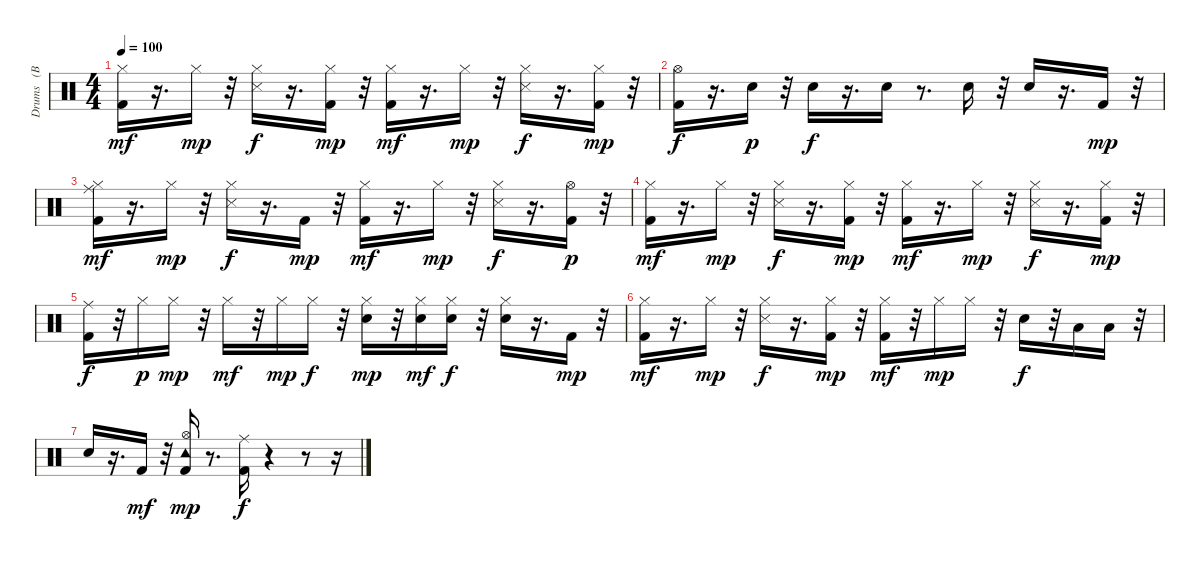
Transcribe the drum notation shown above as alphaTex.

\track ("Drums   (BB)" "Drums   (B") {instrument percussion}
\staff {score}
\articulation defaults
\ts (4 4)
\tempo 100
\clef neutral
\ks c
("Kick (hit) 2" "Hi-Hat (closed)").16{dy mf} r.16{d} "Hi-Hat (closed)".16{dy mp} r.32 ("Hi-Hat (closed)" "Snare (side stick) 3").16{dy f} r.16{d} ("Kick (hit) 2" "Hi-Hat (closed)").16{dy mp} r.32 ("Kick (hit) 2" "Hi-Hat (closed)").16{dy mf} r.16{d} "Hi-Hat (closed)".16{dy mp} r.32 ("Hi-Hat (closed)" "Snare (side stick) 3").16{dy f} r.16{d} ("Kick (hit) 2" "Hi-Hat (closed)").16{dy mp} r.32 |
("Kick (hit) 2" "Hi-Hat (open)").16{dy f} r.16{d} "Snare (hit) 2".16{dy p} r.32 "Snare (hit) 2".16{dy f} r.16{d} "Snare (hit) 2".16 r.8{d} "Snare (hit) 2".16 r.32 "Snare (hit) 2".16 r.16{d} "Kick (hit) 2".16{dy mp} r.32 |
("Kick (hit) 2" "Hi-Hat (closed)" "Ride (middle)").16{dy mf} r.16{d} "Hi-Hat (closed)".16{dy mp} r.32 ("Hi-Hat (closed)" "Snare (side stick) 3").16{dy f} r.16{d} "Kick (hit) 2".16{dy mp} r.32 ("Kick (hit) 2" "Hi-Hat (closed)").16{dy mf} r.16{d} "Hi-Hat (closed)".16{dy mp} r.32 ("Hi-Hat (closed)" "Snare (side stick) 3").16{dy f} r.16{d} ("Kick (hit) 2" "Hi-Hat (open)").16{dy p} r.32 |
("Kick (hit) 2" "Hi-Hat (closed)").16{dy mf} r.16{d} "Hi-Hat (closed)".16{dy mp} r.32 ("Hi-Hat (closed)" "Snare (side stick) 3").16{dy f} r.16{d} ("Kick (hit) 2" "Hi-Hat (closed)").16{dy mp} r.32 ("Kick (hit) 2" "Hi-Hat (closed)").16{dy mf} r.16{d} "Hi-Hat (closed)".16{dy mp} r.32 ("Hi-Hat (closed)" "Snare (side stick) 3").16{dy f} r.16{d} ("Kick (hit) 2" "Hi-Hat (closed)").16{dy mp} r.32 |
("Kick (hit) 2" "Ride (middle)").16{dy f} r.32 "Hi-Hat (closed)".16{dy p} "Hi-Hat (closed)".16{dy mp} r.32 "Hi-Hat (closed)".16{dy mf} r.32 "Hi-Hat (closed)".16{dy mp} "Hi-Hat (closed)".16{dy f} r.32 ("Snare (hit) 2" "Hi-Hat (closed)").16{dy mp} r.32 ("Snare (hit) 2" "Hi-Hat (closed)").16{dy mf} ("Snare (hit) 2" "Hi-Hat (closed)").16{dy f} r.32 ("Snare (hit) 2" "Hi-Hat (closed)").16 r.16{d} "Kick (hit) 2".16{dy mp} r.32 |
("Kick (hit) 2" "Hi-Hat (closed)").16{dy mf} r.16{d} "Hi-Hat (closed)".16{dy mp} r.32 ("Hi-Hat (closed)" "Snare (side stick) 3").16{dy f} r.16{d} ("Kick (hit) 2" "Hi-Hat (closed)").16{dy mp} r.32 ("Kick (hit) 2" "Hi-Hat (closed)").16{dy mf} r.32 "Hi-Hat (closed)".16{dy mp} "Hi-Hat (closed)".16 r.32 "Snare (hit) 2".16{dy f} r.32 "Low Tom (hit)".16 "Low Floor Tom (hit)".16 r.32 |
"Snare (hit) 2".16 r.16{d} "Kick (hit) 2".16{dy mf} r.32 ("Kick (hit) 2" "Hi-Hat (open)" "Tambourine (hit)").16{dy mp} r.8{d} ("Kick (hit) 2" "Ride (middle)").16{dy f} r.4 r.8 r.16
